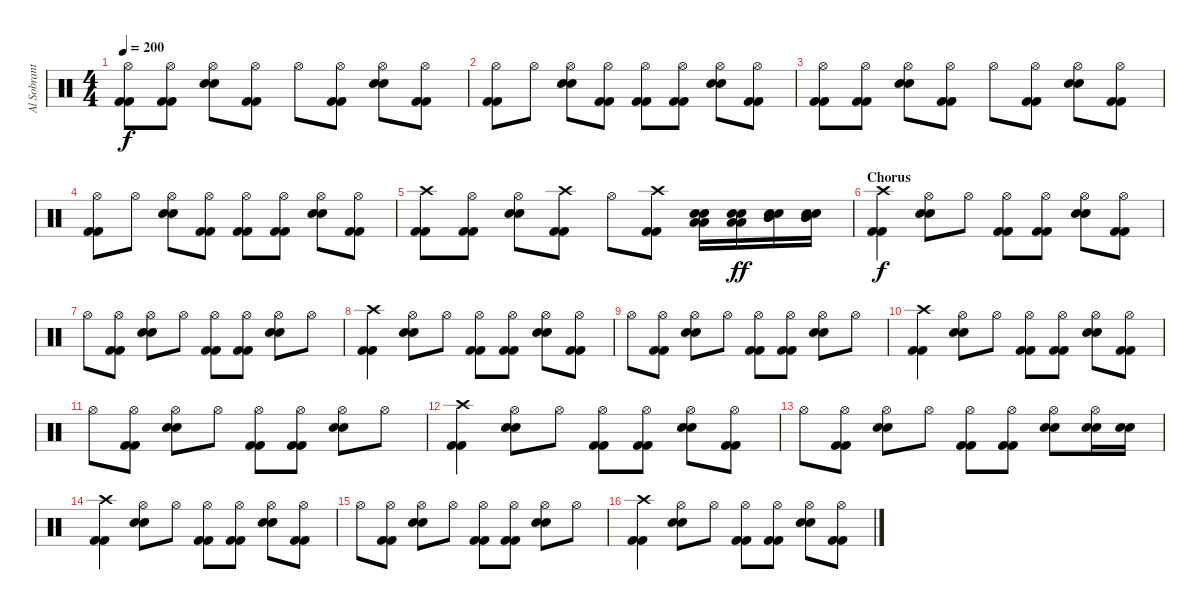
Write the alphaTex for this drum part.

\track ("Al Sobrante (Drums)" "Al Sobrant") {instrument percussion}
\staff {score}
\articulation defaults
\ts (4 4)
\tempo 200
\clef neutral
\ks c
("Kick (hit) 2" "Kick (hit) 2" "Hi-Hat (open)").8{dy f} ("Kick (hit) 2" "Kick (hit) 2" "Hi-Hat (open)").8 ("Electric Snare (hit)" "Electric Snare (hit)" "Hi-Hat (open)").8 ("Kick (hit) 2" "Kick (hit) 2" "Hi-Hat (open)").8 "Hi-Hat (open)".8 ("Kick (hit) 2" "Kick (hit) 2" "Hi-Hat (open)").8 ("Electric Snare (hit)" "Electric Snare (hit)" "Hi-Hat (open)").8 ("Kick (hit) 2" "Kick (hit) 2" "Hi-Hat (open)").8 |
("Kick (hit) 2" "Kick (hit) 2" "Hi-Hat (open)").8 "Hi-Hat (open)".8 ("Electric Snare (hit)" "Electric Snare (hit)" "Hi-Hat (open)").8 ("Kick (hit) 2" "Kick (hit) 2" "Hi-Hat (open)").8 ("Kick (hit) 2" "Kick (hit) 2" "Hi-Hat (open)").8 ("Kick (hit) 2" "Kick (hit) 2" "Hi-Hat (open)").8 ("Electric Snare (hit)" "Electric Snare (hit)" "Hi-Hat (open)").8 ("Kick (hit) 2" "Kick (hit) 2" "Hi-Hat (open)").8 |
("Kick (hit) 2" "Kick (hit) 2" "Hi-Hat (open)").8 ("Kick (hit) 2" "Kick (hit) 2" "Hi-Hat (open)").8 ("Electric Snare (hit)" "Electric Snare (hit)" "Hi-Hat (open)").8 ("Kick (hit) 2" "Kick (hit) 2" "Hi-Hat (open)").8 "Hi-Hat (open)".8 ("Kick (hit) 2" "Kick (hit) 2" "Hi-Hat (open)").8 ("Electric Snare (hit)" "Electric Snare (hit)" "Hi-Hat (open)").8 ("Kick (hit) 2" "Kick (hit) 2" "Hi-Hat (open)").8 |
("Kick (hit) 2" "Kick (hit) 2" "Hi-Hat (open)").8 "Hi-Hat (open)".8 ("Electric Snare (hit)" "Electric Snare (hit)" "Hi-Hat (open)").8 ("Kick (hit) 2" "Kick (hit) 2" "Hi-Hat (open)").8 ("Kick (hit) 2" "Kick (hit) 2" "Hi-Hat (open)").8 ("Kick (hit) 2" "Kick (hit) 2" "Hi-Hat (open)").8 ("Electric Snare (hit)" "Electric Snare (hit)" "Hi-Hat (open)").8 ("Kick (hit) 2" "Kick (hit) 2" "Hi-Hat (open)").8 |
("Kick (hit) 2" "Kick (hit) 2" "Crash high (hit)").8 ("Kick (hit) 2" "Kick (hit) 2" "Hi-Hat (open)").8 ("Electric Snare (hit)" "Electric Snare (hit)" "Hi-Hat (open)").8 ("Kick (hit) 2" "Kick (hit) 2" "Crash high (hit)").8 "Hi-Hat (open)".8 ("Kick (hit) 2" "Kick (hit) 2" "Crash high (hit)").8 ("Electric Snare (hit)" "Electric Snare (hit)" "Low Floor Tom (hit)" "Low Floor Tom (hit)").16 ("Electric Snare (hit)" "Electric Snare (hit)" "Low Floor Tom (hit)" "Low Floor Tom (hit)").16{dy ff} ("Electric Snare (hit)" "Electric Snare (hit)" "Mid Tom (hit)" "Mid Tom (hit)").16 ("Electric Snare (hit)" "Electric Snare (hit)" "Mid Tom (hit)" "Mid Tom (hit)").16 |
\section ("" "Chorus")
("Kick (hit) 2" "Kick (hit) 2" "Crash high (hit)").4{dy f} ("Electric Snare (hit)" "Electric Snare (hit)" "Hi-Hat (open)").8 "Hi-Hat (open)".8 ("Kick (hit) 2" "Kick (hit) 2" "Hi-Hat (open)").8 ("Kick (hit) 2" "Kick (hit) 2" "Hi-Hat (open)").8 ("Electric Snare (hit)" "Electric Snare (hit)" "Hi-Hat (open)").8 ("Kick (hit) 2" "Kick (hit) 2" "Hi-Hat (open)").8 |
"Hi-Hat (open)".8 ("Kick (hit) 2" "Kick (hit) 2" "Hi-Hat (open)").8 ("Electric Snare (hit)" "Electric Snare (hit)" "Hi-Hat (open)").8 "Hi-Hat (open)".8 ("Kick (hit) 2" "Kick (hit) 2" "Hi-Hat (open)").8 ("Kick (hit) 2" "Kick (hit) 2" "Hi-Hat (open)").8 ("Electric Snare (hit)" "Electric Snare (hit)" "Hi-Hat (open)").8 "Hi-Hat (open)".8 |
("Kick (hit) 2" "Kick (hit) 2" "Crash high (hit)").4 ("Electric Snare (hit)" "Electric Snare (hit)" "Hi-Hat (open)").8 "Hi-Hat (open)".8 ("Kick (hit) 2" "Kick (hit) 2" "Hi-Hat (open)").8 ("Kick (hit) 2" "Kick (hit) 2" "Hi-Hat (open)").8 ("Electric Snare (hit)" "Electric Snare (hit)" "Hi-Hat (open)").8 ("Kick (hit) 2" "Kick (hit) 2" "Hi-Hat (open)").8 |
"Hi-Hat (open)".8 ("Kick (hit) 2" "Kick (hit) 2" "Hi-Hat (open)").8 ("Electric Snare (hit)" "Electric Snare (hit)" "Hi-Hat (open)").8 "Hi-Hat (open)".8 ("Kick (hit) 2" "Kick (hit) 2" "Hi-Hat (open)").8 ("Kick (hit) 2" "Kick (hit) 2" "Hi-Hat (open)").8 ("Electric Snare (hit)" "Electric Snare (hit)" "Hi-Hat (open)").8 "Hi-Hat (open)".8 |
("Kick (hit) 2" "Kick (hit) 2" "Crash high (hit)").4 ("Electric Snare (hit)" "Electric Snare (hit)" "Hi-Hat (open)").8 "Hi-Hat (open)".8 ("Kick (hit) 2" "Kick (hit) 2" "Hi-Hat (open)").8 ("Kick (hit) 2" "Kick (hit) 2" "Hi-Hat (open)").8 ("Electric Snare (hit)" "Electric Snare (hit)" "Hi-Hat (open)").8 ("Kick (hit) 2" "Kick (hit) 2" "Hi-Hat (open)").8 |
"Hi-Hat (open)".8 ("Kick (hit) 2" "Kick (hit) 2" "Hi-Hat (open)").8 ("Electric Snare (hit)" "Electric Snare (hit)" "Hi-Hat (open)").8 "Hi-Hat (open)".8 ("Kick (hit) 2" "Kick (hit) 2" "Hi-Hat (open)").8 ("Kick (hit) 2" "Kick (hit) 2" "Hi-Hat (open)").8 ("Electric Snare (hit)" "Electric Snare (hit)" "Hi-Hat (open)").8 "Hi-Hat (open)".8 |
("Kick (hit) 2" "Kick (hit) 2" "Crash high (hit)").4 ("Electric Snare (hit)" "Electric Snare (hit)" "Hi-Hat (open)").8 "Hi-Hat (open)".8 ("Kick (hit) 2" "Kick (hit) 2" "Hi-Hat (open)").8 ("Kick (hit) 2" "Kick (hit) 2" "Hi-Hat (open)").8 ("Electric Snare (hit)" "Electric Snare (hit)" "Hi-Hat (open)").8 ("Kick (hit) 2" "Kick (hit) 2" "Hi-Hat (open)").8 |
"Hi-Hat (open)".8 ("Kick (hit) 2" "Kick (hit) 2" "Hi-Hat (open)").8 ("Electric Snare (hit)" "Electric Snare (hit)" "Hi-Hat (open)").8 "Hi-Hat (open)".8 ("Kick (hit) 2" "Kick (hit) 2" "Hi-Hat (open)").8 ("Kick (hit) 2" "Kick (hit) 2" "Hi-Hat (open)").8 ("Electric Snare (hit)" "Electric Snare (hit)" "Hi-Hat (open)").8 ("Electric Snare (hit)" "Electric Snare (hit)" "Hi-Hat (open)").16 ("Electric Snare (hit)" "Electric Snare (hit)").16 |
("Kick (hit) 2" "Kick (hit) 2" "Crash high (hit)").4 ("Electric Snare (hit)" "Electric Snare (hit)" "Hi-Hat (open)").8 "Hi-Hat (open)".8 ("Kick (hit) 2" "Kick (hit) 2" "Hi-Hat (open)").8 ("Kick (hit) 2" "Kick (hit) 2" "Hi-Hat (open)").8 ("Electric Snare (hit)" "Electric Snare (hit)" "Hi-Hat (open)").8 ("Kick (hit) 2" "Kick (hit) 2" "Hi-Hat (open)").8 |
"Hi-Hat (open)".8 ("Kick (hit) 2" "Kick (hit) 2" "Hi-Hat (open)").8 ("Electric Snare (hit)" "Electric Snare (hit)" "Hi-Hat (open)").8 "Hi-Hat (open)".8 ("Kick (hit) 2" "Kick (hit) 2" "Hi-Hat (open)").8 ("Kick (hit) 2" "Kick (hit) 2" "Hi-Hat (open)").8 ("Electric Snare (hit)" "Electric Snare (hit)" "Hi-Hat (open)").8 "Hi-Hat (open)".8 |
("Kick (hit) 2" "Kick (hit) 2" "Crash high (hit)").4 ("Electric Snare (hit)" "Electric Snare (hit)" "Hi-Hat (open)").8 "Hi-Hat (open)".8 ("Kick (hit) 2" "Kick (hit) 2" "Hi-Hat (open)").8 ("Kick (hit) 2" "Kick (hit) 2" "Hi-Hat (open)").8 ("Electric Snare (hit)" "Electric Snare (hit)" "Hi-Hat (open)").8 ("Kick (hit) 2" "Kick (hit) 2" "Hi-Hat (open)").8
